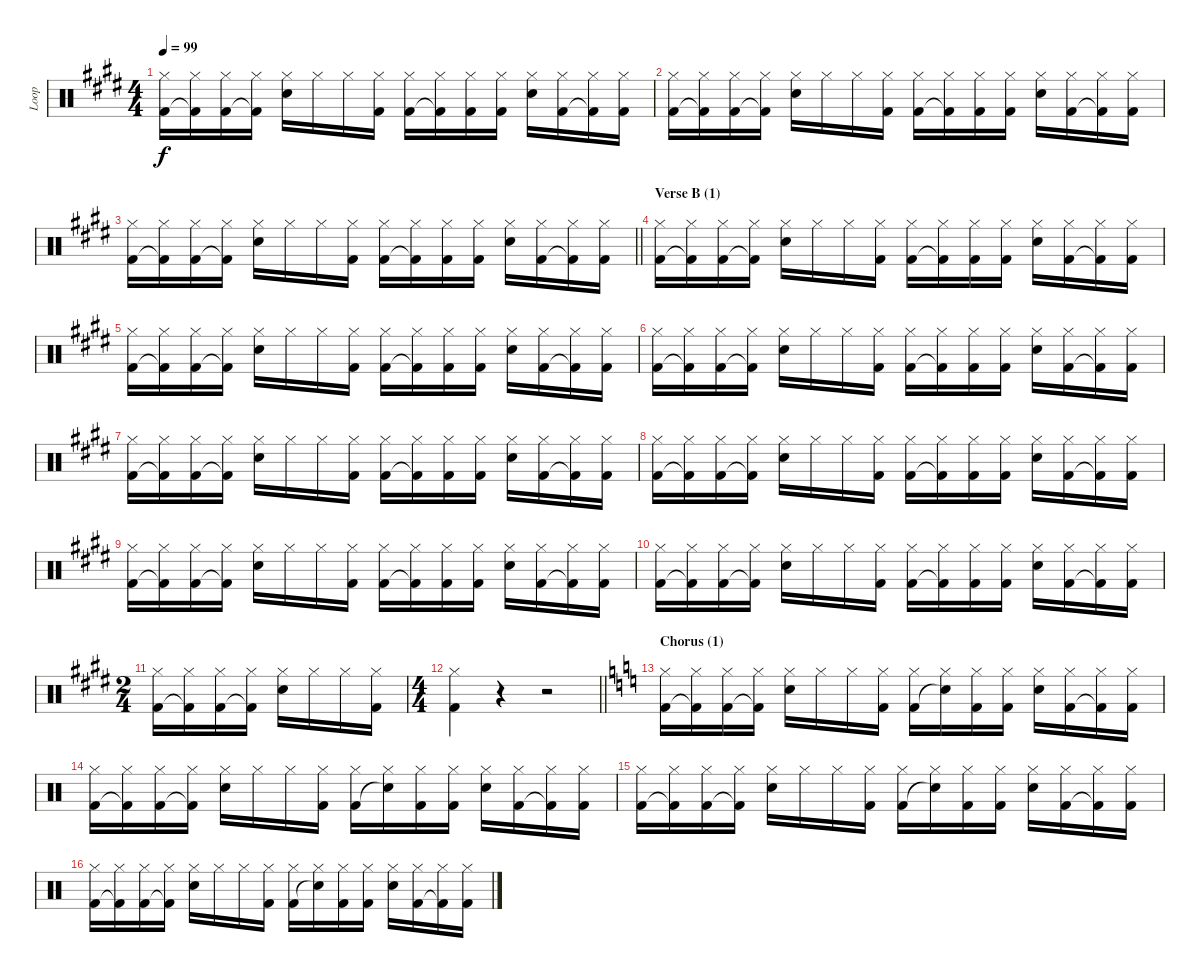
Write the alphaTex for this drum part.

\track ("Loop" "Loop") {instrument percussion}
\staff {score}
\articulation defaults
\ts (4 4)
\tempo 99
\clef neutral
\ks c#minor
("Hi-Hat (closed)" "Kick (hit) 2").16{dy f} ("Hi-Hat (closed)" "Kick (hit) 2"{t}).16 ("Hi-Hat (closed)" "Kick (hit) 2").16 ("Hi-Hat (closed)" "Kick (hit) 2"{t}).16 ("Hi-Hat (closed)" "Electric Snare (hit)").16 "Hi-Hat (closed)".16 "Hi-Hat (closed)".16 ("Hi-Hat (closed)" "Kick (hit) 2").16 ("Hi-Hat (closed)" "Kick (hit) 2").16 ("Hi-Hat (closed)" "Kick (hit) 2"{t}).16 ("Hi-Hat (closed)" "Kick (hit) 2").16 ("Hi-Hat (closed)" "Kick (hit) 2").16 ("Hi-Hat (closed)" "Electric Snare (hit)").16 ("Hi-Hat (closed)" "Kick (hit) 2").16 ("Hi-Hat (closed)" "Kick (hit) 2"{t}).16 ("Hi-Hat (closed)" "Kick (hit) 2").16 |
("Hi-Hat (closed)" "Kick (hit) 2").16 ("Hi-Hat (closed)" "Kick (hit) 2"{t}).16 ("Hi-Hat (closed)" "Kick (hit) 2").16 ("Hi-Hat (closed)" "Kick (hit) 2"{t}).16 ("Hi-Hat (closed)" "Electric Snare (hit)").16 "Hi-Hat (closed)".16 "Hi-Hat (closed)".16 ("Hi-Hat (closed)" "Kick (hit) 2").16 ("Hi-Hat (closed)" "Kick (hit) 2").16 ("Hi-Hat (closed)" "Kick (hit) 2"{t}).16 ("Hi-Hat (closed)" "Kick (hit) 2").16 ("Hi-Hat (closed)" "Kick (hit) 2").16 ("Hi-Hat (closed)" "Electric Snare (hit)").16 ("Hi-Hat (closed)" "Kick (hit) 2").16 ("Hi-Hat (closed)" "Kick (hit) 2"{t}).16 ("Hi-Hat (closed)" "Kick (hit) 2").16 |
\barLineRight lightlight
("Hi-Hat (closed)" "Kick (hit) 2").16 ("Hi-Hat (closed)" "Kick (hit) 2"{t}).16 ("Hi-Hat (closed)" "Kick (hit) 2").16 ("Hi-Hat (closed)" "Kick (hit) 2"{t}).16 ("Hi-Hat (closed)" "Electric Snare (hit)").16 "Hi-Hat (closed)".16 "Hi-Hat (closed)".16 ("Hi-Hat (closed)" "Kick (hit) 2").16 ("Hi-Hat (closed)" "Kick (hit) 2").16 ("Hi-Hat (closed)" "Kick (hit) 2"{t}).16 ("Hi-Hat (closed)" "Kick (hit) 2").16 ("Hi-Hat (closed)" "Kick (hit) 2").16 ("Hi-Hat (closed)" "Electric Snare (hit)").16 ("Hi-Hat (closed)" "Kick (hit) 2").16 ("Hi-Hat (closed)" "Kick (hit) 2"{t}).16 ("Hi-Hat (closed)" "Kick (hit) 2").16 |
\section ("" "Verse B (1)")
("Hi-Hat (closed)" "Kick (hit) 2").16 ("Hi-Hat (closed)" "Kick (hit) 2"{t}).16 ("Hi-Hat (closed)" "Kick (hit) 2").16 ("Hi-Hat (closed)" "Kick (hit) 2"{t}).16 ("Hi-Hat (closed)" "Electric Snare (hit)").16 "Hi-Hat (closed)".16 "Hi-Hat (closed)".16 ("Hi-Hat (closed)" "Kick (hit) 2").16 ("Hi-Hat (closed)" "Kick (hit) 2").16 ("Hi-Hat (closed)" "Kick (hit) 2"{t}).16 ("Hi-Hat (closed)" "Kick (hit) 2").16 ("Hi-Hat (closed)" "Kick (hit) 2").16 ("Hi-Hat (closed)" "Electric Snare (hit)").16 ("Hi-Hat (closed)" "Kick (hit) 2").16 ("Hi-Hat (closed)" "Kick (hit) 2"{t}).16 ("Hi-Hat (closed)" "Kick (hit) 2").16 |
("Hi-Hat (closed)" "Kick (hit) 2").16 ("Hi-Hat (closed)" "Kick (hit) 2"{t}).16 ("Hi-Hat (closed)" "Kick (hit) 2").16 ("Hi-Hat (closed)" "Kick (hit) 2"{t}).16 ("Hi-Hat (closed)" "Electric Snare (hit)").16 "Hi-Hat (closed)".16 "Hi-Hat (closed)".16 ("Hi-Hat (closed)" "Kick (hit) 2").16 ("Hi-Hat (closed)" "Kick (hit) 2").16 ("Hi-Hat (closed)" "Kick (hit) 2"{t}).16 ("Hi-Hat (closed)" "Kick (hit) 2").16 ("Hi-Hat (closed)" "Kick (hit) 2").16 ("Hi-Hat (closed)" "Electric Snare (hit)").16 ("Hi-Hat (closed)" "Kick (hit) 2").16 ("Hi-Hat (closed)" "Kick (hit) 2"{t}).16 ("Hi-Hat (closed)" "Kick (hit) 2").16 |
("Hi-Hat (closed)" "Kick (hit) 2").16 ("Hi-Hat (closed)" "Kick (hit) 2"{t}).16 ("Hi-Hat (closed)" "Kick (hit) 2").16 ("Hi-Hat (closed)" "Kick (hit) 2"{t}).16 ("Hi-Hat (closed)" "Electric Snare (hit)").16 "Hi-Hat (closed)".16 "Hi-Hat (closed)".16 ("Hi-Hat (closed)" "Kick (hit) 2").16 ("Hi-Hat (closed)" "Kick (hit) 2").16 ("Hi-Hat (closed)" "Kick (hit) 2"{t}).16 ("Hi-Hat (closed)" "Kick (hit) 2").16 ("Hi-Hat (closed)" "Kick (hit) 2").16 ("Hi-Hat (closed)" "Electric Snare (hit)").16 ("Hi-Hat (closed)" "Kick (hit) 2").16 ("Hi-Hat (closed)" "Kick (hit) 2"{t}).16 ("Hi-Hat (closed)" "Kick (hit) 2").16 |
("Hi-Hat (closed)" "Kick (hit) 2").16 ("Hi-Hat (closed)" "Kick (hit) 2"{t}).16 ("Hi-Hat (closed)" "Kick (hit) 2").16 ("Hi-Hat (closed)" "Kick (hit) 2"{t}).16 ("Hi-Hat (closed)" "Electric Snare (hit)").16 "Hi-Hat (closed)".16 "Hi-Hat (closed)".16 ("Hi-Hat (closed)" "Kick (hit) 2").16 ("Hi-Hat (closed)" "Kick (hit) 2").16 ("Hi-Hat (closed)" "Kick (hit) 2"{t}).16 ("Hi-Hat (closed)" "Kick (hit) 2").16 ("Hi-Hat (closed)" "Kick (hit) 2").16 ("Hi-Hat (closed)" "Electric Snare (hit)").16 ("Hi-Hat (closed)" "Kick (hit) 2").16 ("Hi-Hat (closed)" "Kick (hit) 2"{t}).16 ("Hi-Hat (closed)" "Kick (hit) 2").16 |
("Hi-Hat (closed)" "Kick (hit) 2").16 ("Hi-Hat (closed)" "Kick (hit) 2"{t}).16 ("Hi-Hat (closed)" "Kick (hit) 2").16 ("Hi-Hat (closed)" "Kick (hit) 2"{t}).16 ("Hi-Hat (closed)" "Electric Snare (hit)").16 "Hi-Hat (closed)".16 "Hi-Hat (closed)".16 ("Hi-Hat (closed)" "Kick (hit) 2").16 ("Hi-Hat (closed)" "Kick (hit) 2").16 ("Hi-Hat (closed)" "Kick (hit) 2"{t}).16 ("Hi-Hat (closed)" "Kick (hit) 2").16 ("Hi-Hat (closed)" "Kick (hit) 2").16 ("Hi-Hat (closed)" "Electric Snare (hit)").16 ("Hi-Hat (closed)" "Kick (hit) 2").16 ("Hi-Hat (closed)" "Kick (hit) 2"{t}).16 ("Hi-Hat (closed)" "Kick (hit) 2").16 |
("Hi-Hat (closed)" "Kick (hit) 2").16 ("Hi-Hat (closed)" "Kick (hit) 2"{t}).16 ("Hi-Hat (closed)" "Kick (hit) 2").16 ("Hi-Hat (closed)" "Kick (hit) 2"{t}).16 ("Hi-Hat (closed)" "Electric Snare (hit)").16 "Hi-Hat (closed)".16 "Hi-Hat (closed)".16 ("Hi-Hat (closed)" "Kick (hit) 2").16 ("Hi-Hat (closed)" "Kick (hit) 2").16 ("Hi-Hat (closed)" "Kick (hit) 2"{t}).16 ("Hi-Hat (closed)" "Kick (hit) 2").16 ("Hi-Hat (closed)" "Kick (hit) 2").16 ("Hi-Hat (closed)" "Electric Snare (hit)").16 ("Hi-Hat (closed)" "Kick (hit) 2").16 ("Hi-Hat (closed)" "Kick (hit) 2"{t}).16 ("Hi-Hat (closed)" "Kick (hit) 2").16 |
("Hi-Hat (closed)" "Kick (hit) 2").16 ("Hi-Hat (closed)" "Kick (hit) 2"{t}).16 ("Hi-Hat (closed)" "Kick (hit) 2").16 ("Hi-Hat (closed)" "Kick (hit) 2"{t}).16 ("Hi-Hat (closed)" "Electric Snare (hit)").16 "Hi-Hat (closed)".16 "Hi-Hat (closed)".16 ("Hi-Hat (closed)" "Kick (hit) 2").16 ("Hi-Hat (closed)" "Kick (hit) 2").16 ("Hi-Hat (closed)" "Kick (hit) 2"{t}).16 ("Hi-Hat (closed)" "Kick (hit) 2").16 ("Hi-Hat (closed)" "Kick (hit) 2").16 ("Hi-Hat (closed)" "Electric Snare (hit)").16 ("Hi-Hat (closed)" "Kick (hit) 2").16 ("Hi-Hat (closed)" "Kick (hit) 2"{t}).16 ("Hi-Hat (closed)" "Kick (hit) 2").16 |
\ts (2 4)
("Hi-Hat (closed)" "Kick (hit) 2").16 ("Hi-Hat (closed)" "Kick (hit) 2"{t}).16 ("Hi-Hat (closed)" "Kick (hit) 2").16 ("Hi-Hat (closed)" "Kick (hit) 2"{t}).16 ("Hi-Hat (closed)" "Electric Snare (hit)").16 "Hi-Hat (closed)".16 "Hi-Hat (closed)".16 ("Hi-Hat (closed)" "Kick (hit) 2").16 |
\ts (4 4)
\barLineRight lightlight
("Hi-Hat (closed)" "Kick (hit) 2").4 r.4 r.2 |
\section ("" "Chorus (1)")
\ks c
("Hi-Hat (closed)" "Kick (hit) 2").16 ("Hi-Hat (closed)" "Kick (hit) 2"{t}).16 ("Hi-Hat (closed)" "Kick (hit) 2").16 ("Hi-Hat (closed)" "Kick (hit) 2"{t}).16 ("Hi-Hat (closed)" "Electric Snare (hit)").16 "Hi-Hat (closed)".16 "Hi-Hat (closed)".16 ("Hi-Hat (closed)" "Kick (hit) 2").16 ("Hi-Hat (closed)" "Kick (hit) 2").16 ("Hi-Hat (closed)" "Snare (hit)"{t}).16 ("Hi-Hat (closed)" "Kick (hit) 2").16 ("Hi-Hat (closed)" "Kick (hit) 2").16 ("Hi-Hat (closed)" "Electric Snare (hit)").16 ("Hi-Hat (closed)" "Kick (hit) 2").16 ("Hi-Hat (closed)" "Kick (hit) 2"{t}).16 ("Hi-Hat (closed)" "Kick (hit) 2").16 |
("Hi-Hat (closed)" "Kick (hit) 2").16 ("Hi-Hat (closed)" "Kick (hit) 2"{t}).16 ("Hi-Hat (closed)" "Kick (hit) 2").16 ("Hi-Hat (closed)" "Kick (hit) 2"{t}).16 ("Hi-Hat (closed)" "Electric Snare (hit)").16 "Hi-Hat (closed)".16 "Hi-Hat (closed)".16 ("Hi-Hat (closed)" "Kick (hit) 2").16 ("Hi-Hat (closed)" "Kick (hit) 2").16 ("Hi-Hat (closed)" "Snare (hit)"{t}).16 ("Hi-Hat (closed)" "Kick (hit) 2").16 ("Hi-Hat (closed)" "Kick (hit) 2").16 ("Hi-Hat (closed)" "Electric Snare (hit)").16 ("Hi-Hat (closed)" "Kick (hit) 2").16 ("Hi-Hat (closed)" "Kick (hit) 2"{t}).16 ("Hi-Hat (closed)" "Kick (hit) 2").16 |
("Hi-Hat (closed)" "Kick (hit) 2").16 ("Hi-Hat (closed)" "Kick (hit) 2"{t}).16 ("Hi-Hat (closed)" "Kick (hit) 2").16 ("Hi-Hat (closed)" "Kick (hit) 2"{t}).16 ("Hi-Hat (closed)" "Electric Snare (hit)").16 "Hi-Hat (closed)".16 "Hi-Hat (closed)".16 ("Hi-Hat (closed)" "Kick (hit) 2").16 ("Hi-Hat (closed)" "Kick (hit) 2").16 ("Hi-Hat (closed)" "Snare (hit)"{t}).16 ("Hi-Hat (closed)" "Kick (hit) 2").16 ("Hi-Hat (closed)" "Kick (hit) 2").16 ("Hi-Hat (closed)" "Electric Snare (hit)").16 ("Hi-Hat (closed)" "Kick (hit) 2").16 ("Hi-Hat (closed)" "Kick (hit) 2"{t}).16 ("Hi-Hat (closed)" "Kick (hit) 2").16 |
("Hi-Hat (closed)" "Kick (hit) 2").16 ("Hi-Hat (closed)" "Kick (hit) 2"{t}).16 ("Hi-Hat (closed)" "Kick (hit) 2").16 ("Hi-Hat (closed)" "Kick (hit) 2"{t}).16 ("Hi-Hat (closed)" "Electric Snare (hit)").16 "Hi-Hat (closed)".16 "Hi-Hat (closed)".16 ("Hi-Hat (closed)" "Kick (hit) 2").16 ("Hi-Hat (closed)" "Kick (hit) 2").16 ("Hi-Hat (closed)" "Snare (hit)"{t}).16 ("Hi-Hat (closed)" "Kick (hit) 2").16 ("Hi-Hat (closed)" "Kick (hit) 2").16 ("Hi-Hat (closed)" "Electric Snare (hit)").16 ("Hi-Hat (closed)" "Kick (hit) 2").16 ("Hi-Hat (closed)" "Kick (hit) 2"{t}).16 ("Hi-Hat (closed)" "Kick (hit) 2").16
